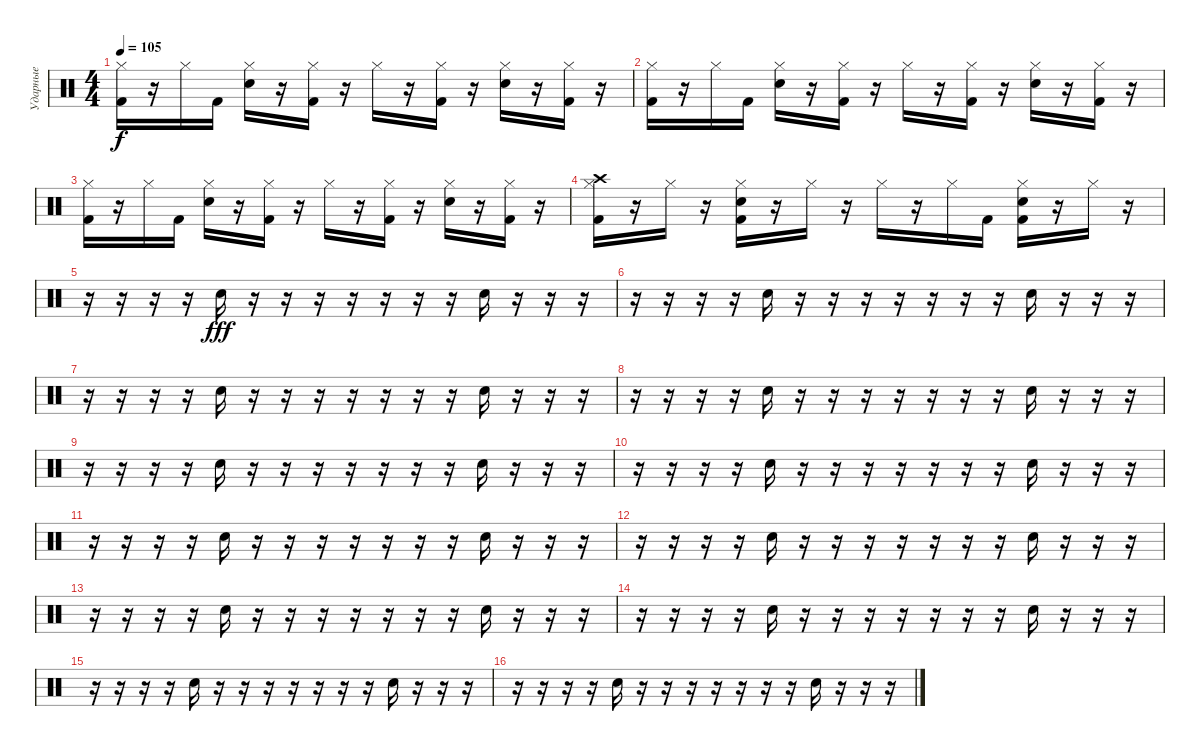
\track ("Ударные" "Ударные") {instrument percussion}
\staff {score}
\articulation defaults
\ts (4 4)
\tempo 105
\clef neutral
\ks c
("Hi-Hat (closed)" "Kick (hit) 2").16{dy f} r.16 "Hi-Hat (closed)".16 "Kick (hit) 2".16 ("Hi-Hat (closed)" "Electric Snare (hit)").16 r.16 ("Hi-Hat (closed)" "Kick (hit) 2").16 r.16 "Hi-Hat (closed)".16 r.16 ("Hi-Hat (closed)" "Kick (hit) 2").16 r.16 ("Hi-Hat (closed)" "Electric Snare (hit)").16 r.16 ("Hi-Hat (closed)" "Kick (hit) 2").16 r.16 |
("Hi-Hat (closed)" "Kick (hit) 2").16 r.16 "Hi-Hat (closed)".16 "Kick (hit) 2".16 ("Hi-Hat (closed)" "Electric Snare (hit)").16 r.16 ("Hi-Hat (closed)" "Kick (hit) 2").16 r.16 "Hi-Hat (closed)".16 r.16 ("Hi-Hat (closed)" "Kick (hit) 2").16 r.16 ("Hi-Hat (closed)" "Electric Snare (hit)").16 r.16 ("Hi-Hat (closed)" "Kick (hit) 2").16 r.16 |
("Hi-Hat (closed)" "Kick (hit) 2").16 r.16 "Hi-Hat (closed)".16 "Kick (hit) 2".16 ("Hi-Hat (closed)" "Electric Snare (hit)").16 r.16 ("Hi-Hat (closed)" "Kick (hit) 2").16 r.16 "Hi-Hat (closed)".16 r.16 ("Hi-Hat (closed)" "Kick (hit) 2").16 r.16 ("Hi-Hat (closed)" "Electric Snare (hit)").16 r.16 ("Hi-Hat (closed)" "Kick (hit) 2").16 r.16 |
("Hi-Hat (closed)" "Kick (hit) 2" "Crash high (hit)").16 r.16 "Hi-Hat (closed)".16 r.16 ("Hi-Hat (closed)" "Kick (hit) 2" "Electric Snare (hit)").16 r.16 "Hi-Hat (closed)".16 r.16 "Hi-Hat (closed)".16 r.16 "Hi-Hat (closed)".16 "Kick (hit) 2".16 ("Hi-Hat (closed)" "Kick (hit) 2" "Electric Snare (hit)").16 r.16 "Hi-Hat (closed)".16 r.16 |
r.16 r.16 r.16 r.16 "Hand Clap (hit)".16{dy fff} r.16 r.16 r.16 r.16 r.16 r.16 r.16 "Hand Clap (hit)".16 r.16 r.16 r.16 |
r.16 r.16 r.16 r.16 "Hand Clap (hit)".16 r.16 r.16 r.16 r.16 r.16 r.16 r.16 "Hand Clap (hit)".16 r.16 r.16 r.16 |
r.16 r.16 r.16 r.16 "Hand Clap (hit)".16 r.16 r.16 r.16 r.16 r.16 r.16 r.16 "Hand Clap (hit)".16 r.16 r.16 r.16 |
r.16 r.16 r.16 r.16 "Hand Clap (hit)".16 r.16 r.16 r.16 r.16 r.16 r.16 r.16 "Hand Clap (hit)".16 r.16 r.16 r.16 |
r.16 r.16 r.16 r.16 "Hand Clap (hit)".16 r.16 r.16 r.16 r.16 r.16 r.16 r.16 "Hand Clap (hit)".16 r.16 r.16 r.16 |
r.16 r.16 r.16 r.16 "Hand Clap (hit)".16 r.16 r.16 r.16 r.16 r.16 r.16 r.16 "Hand Clap (hit)".16 r.16 r.16 r.16 |
r.16 r.16 r.16 r.16 "Hand Clap (hit)".16 r.16 r.16 r.16 r.16 r.16 r.16 r.16 "Hand Clap (hit)".16 r.16 r.16 r.16 |
r.16 r.16 r.16 r.16 "Hand Clap (hit)".16 r.16 r.16 r.16 r.16 r.16 r.16 r.16 "Hand Clap (hit)".16 r.16 r.16 r.16 |
r.16 r.16 r.16 r.16 "Hand Clap (hit)".16 r.16 r.16 r.16 r.16 r.16 r.16 r.16 "Hand Clap (hit)".16 r.16 r.16 r.16 |
r.16 r.16 r.16 r.16 "Hand Clap (hit)".16 r.16 r.16 r.16 r.16 r.16 r.16 r.16 "Hand Clap (hit)".16 r.16 r.16 r.16 |
r.16 r.16 r.16 r.16 "Hand Clap (hit)".16 r.16 r.16 r.16 r.16 r.16 r.16 r.16 "Hand Clap (hit)".16 r.16 r.16 r.16 |
r.16 r.16 r.16 r.16 "Hand Clap (hit)".16 r.16 r.16 r.16 r.16 r.16 r.16 r.16 "Hand Clap (hit)".16 r.16 r.16 r.16
